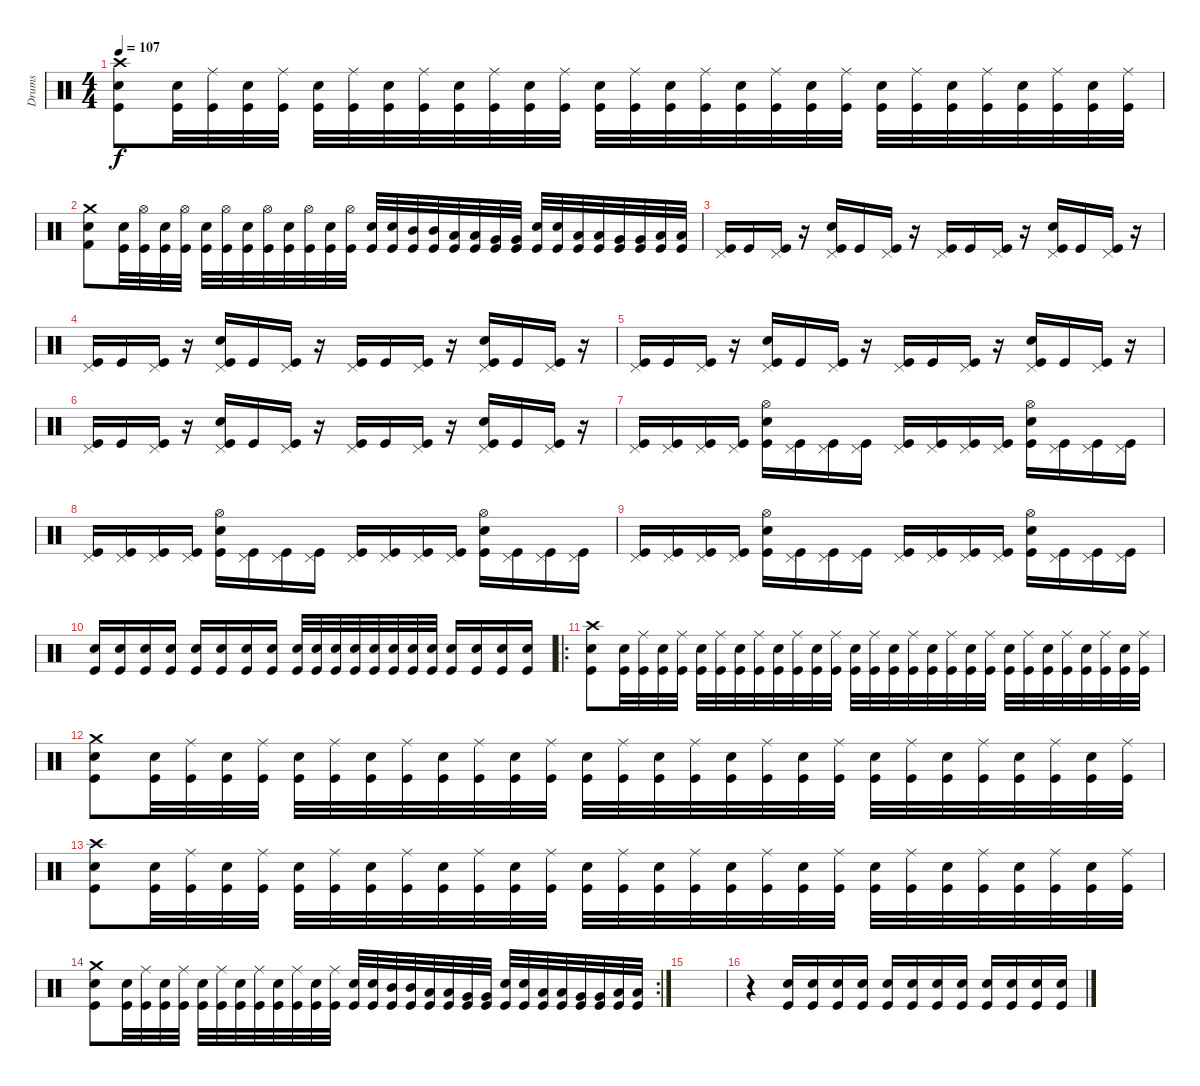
\track ("Drums" "Drums") {instrument percussion}
\staff
\articulation defaults
\ts (4 4)
\tempo 107
\clef neutral
\ks c
("Crash high (hit)" "Electric Snare (hit)" "Kick (hit)").8{dy f} ("Electric Snare (hit)" "Kick (hit)").32 ("Ride (middle)" "Kick (hit)").32 ("Electric Snare (hit)" "Kick (hit)").32 ("Ride (middle)" "Kick (hit)").32 ("Electric Snare (hit)" "Kick (hit)").32 ("Ride (middle)" "Kick (hit)").32 ("Electric Snare (hit)" "Kick (hit)").32 ("Ride (middle)" "Kick (hit)").32 ("Electric Snare (hit)" "Kick (hit)").32 ("Ride (middle)" "Kick (hit)").32 ("Electric Snare (hit)" "Kick (hit)").32 ("Ride (middle)" "Kick (hit)").32 ("Electric Snare (hit)" "Kick (hit)").32 ("Ride (middle)" "Kick (hit)").32 ("Electric Snare (hit)" "Kick (hit)").32 ("Ride (middle)" "Kick (hit)").32 ("Electric Snare (hit)" "Kick (hit)").32 ("Ride (middle)" "Kick (hit)").32 ("Electric Snare (hit)" "Kick (hit)").32 ("Ride (middle)" "Kick (hit)").32 ("Electric Snare (hit)" "Kick (hit)").32 ("Ride (middle)" "Kick (hit)").32 ("Electric Snare (hit)" "Kick (hit)").32 ("Ride (middle)" "Kick (hit)").32 ("Electric Snare (hit)" "Kick (hit)").32 ("Ride (middle)" "Kick (hit)").32 ("Electric Snare (hit)" "Kick (hit)").32 ("Ride (middle)" "Kick (hit)").32 |
("Crash medium (hit)" "Electric Snare (hit)" "Kick (hit) 2").8 ("Electric Snare (hit)" "Kick (hit)").32 ("Hi-Hat (open)" "Kick (hit)").32 ("Electric Snare (hit)" "Kick (hit)").32 ("Hi-Hat (open)" "Kick (hit)").32 ("Electric Snare (hit)" "Kick (hit)").32 ("Hi-Hat (open)" "Kick (hit)").32 ("Electric Snare (hit)" "Kick (hit)").32 ("Hi-Hat (open)" "Kick (hit)").32 ("Electric Snare (hit)" "Kick (hit)").32 ("Hi-Hat (open)" "Kick (hit)").32 ("Electric Snare (hit)" "Kick (hit)").32 ("Hi-Hat (open)" "Kick (hit)").32 ("Electric Snare (hit)" "Kick (hit)").32 ("Electric Snare (hit)" "Kick (hit)").32 ("Mid Tom (hit)" "Kick (hit)").32 ("Mid Tom (hit)" "Kick (hit)").32 ("Low Tom (hit)" "Kick (hit)").32 ("Low Tom (hit)" "Kick (hit)").32 ("Very Low Tom (hit)" "Kick (hit)").32 ("Very Low Tom (hit)" "Kick (hit)").32 ("Electric Snare (hit)" "Kick (hit)").32 ("Electric Snare (hit)" "Kick (hit)").32 ("Low Tom (hit)" "Kick (hit)").32 ("Low Tom (hit)" "Kick (hit)").32 ("Very Low Tom (hit)" "Kick (hit)").32 ("Very Low Tom (hit)" "Kick (hit)").32 ("Low Floor Tom (hit)" "Kick (hit)").32 ("Low Floor Tom (hit)" "Kick (hit)").32 |
("Pedal Hi-Hat (hit)" "Kick (hit)").16 "Kick (hit)".16 ("Pedal Hi-Hat (hit)" "Kick (hit)").16 r.16 ("Pedal Hi-Hat (hit)" "Electric Snare (hit)" "Kick (hit)").16 "Kick (hit)".16 ("Pedal Hi-Hat (hit)" "Kick (hit)").16 r.16 ("Pedal Hi-Hat (hit)" "Kick (hit)").16 "Kick (hit)".16 ("Pedal Hi-Hat (hit)" "Kick (hit)").16 r.16 ("Pedal Hi-Hat (hit)" "Electric Snare (hit)" "Kick (hit)").16 "Kick (hit)".16 ("Pedal Hi-Hat (hit)" "Kick (hit)").16 r.16 |
("Pedal Hi-Hat (hit)" "Kick (hit)").16 "Kick (hit)".16 ("Pedal Hi-Hat (hit)" "Kick (hit)").16 r.16 ("Pedal Hi-Hat (hit)" "Electric Snare (hit)" "Kick (hit)").16 "Kick (hit)".16 ("Pedal Hi-Hat (hit)" "Kick (hit)").16 r.16 ("Pedal Hi-Hat (hit)" "Kick (hit)").16 "Kick (hit)".16 ("Pedal Hi-Hat (hit)" "Kick (hit)").16 r.16 ("Pedal Hi-Hat (hit)" "Electric Snare (hit)" "Kick (hit)").16 "Kick (hit)".16 ("Pedal Hi-Hat (hit)" "Kick (hit)").16 r.16 |
("Pedal Hi-Hat (hit)" "Kick (hit)").16 "Kick (hit)".16 ("Pedal Hi-Hat (hit)" "Kick (hit)").16 r.16 ("Pedal Hi-Hat (hit)" "Electric Snare (hit)" "Kick (hit)").16 "Kick (hit)".16 ("Pedal Hi-Hat (hit)" "Kick (hit)").16 r.16 ("Pedal Hi-Hat (hit)" "Kick (hit)").16 "Kick (hit)".16 ("Pedal Hi-Hat (hit)" "Kick (hit)").16 r.16 ("Pedal Hi-Hat (hit)" "Electric Snare (hit)" "Kick (hit)").16 "Kick (hit)".16 ("Pedal Hi-Hat (hit)" "Kick (hit)").16 r.16 |
("Pedal Hi-Hat (hit)" "Kick (hit)").16 "Kick (hit)".16 ("Pedal Hi-Hat (hit)" "Kick (hit)").16 r.16 ("Pedal Hi-Hat (hit)" "Electric Snare (hit)" "Kick (hit)").16 "Kick (hit)".16 ("Pedal Hi-Hat (hit)" "Kick (hit)").16 r.16 ("Pedal Hi-Hat (hit)" "Kick (hit)").16 "Kick (hit)".16 ("Pedal Hi-Hat (hit)" "Kick (hit)").16 r.16 ("Pedal Hi-Hat (hit)" "Electric Snare (hit)" "Kick (hit)").16 "Kick (hit)".16 ("Pedal Hi-Hat (hit)" "Kick (hit)").16 r.16 |
("Pedal Hi-Hat (hit)" "Kick (hit)").16 ("Pedal Hi-Hat (hit)" "Kick (hit)").16 ("Pedal Hi-Hat (hit)" "Kick (hit)").16 ("Pedal Hi-Hat (hit)" "Kick (hit)").16 ("Hi-Hat (open)" "Electric Snare (hit)" "Kick (hit)").16 ("Pedal Hi-Hat (hit)" "Kick (hit)").16 ("Pedal Hi-Hat (hit)" "Kick (hit)").16 ("Pedal Hi-Hat (hit)" "Kick (hit)").16 ("Pedal Hi-Hat (hit)" "Kick (hit)").16 ("Pedal Hi-Hat (hit)" "Kick (hit)").16 ("Pedal Hi-Hat (hit)" "Kick (hit)").16 ("Pedal Hi-Hat (hit)" "Kick (hit)").16 ("Hi-Hat (open)" "Electric Snare (hit)" "Kick (hit)").16 ("Pedal Hi-Hat (hit)" "Kick (hit)").16 ("Pedal Hi-Hat (hit)" "Kick (hit)").16 ("Pedal Hi-Hat (hit)" "Kick (hit)").16 |
("Pedal Hi-Hat (hit)" "Kick (hit)").16 ("Pedal Hi-Hat (hit)" "Kick (hit)").16 ("Pedal Hi-Hat (hit)" "Kick (hit)").16 ("Pedal Hi-Hat (hit)" "Kick (hit)").16 ("Hi-Hat (open)" "Electric Snare (hit)" "Kick (hit)").16 ("Pedal Hi-Hat (hit)" "Kick (hit)").16 ("Pedal Hi-Hat (hit)" "Kick (hit)").16 ("Pedal Hi-Hat (hit)" "Kick (hit)").16 ("Pedal Hi-Hat (hit)" "Kick (hit)").16 ("Pedal Hi-Hat (hit)" "Kick (hit)").16 ("Pedal Hi-Hat (hit)" "Kick (hit)").16 ("Pedal Hi-Hat (hit)" "Kick (hit)").16 ("Hi-Hat (open)" "Electric Snare (hit)" "Kick (hit)").16 ("Pedal Hi-Hat (hit)" "Kick (hit)").16 ("Pedal Hi-Hat (hit)" "Kick (hit)").16 ("Pedal Hi-Hat (hit)" "Kick (hit)").16 |
("Pedal Hi-Hat (hit)" "Kick (hit)").16 ("Pedal Hi-Hat (hit)" "Kick (hit)").16 ("Pedal Hi-Hat (hit)" "Kick (hit)").16 ("Pedal Hi-Hat (hit)" "Kick (hit)").16 ("Hi-Hat (open)" "Electric Snare (hit)" "Kick (hit)").16 ("Pedal Hi-Hat (hit)" "Kick (hit)").16 ("Pedal Hi-Hat (hit)" "Kick (hit)").16 ("Pedal Hi-Hat (hit)" "Kick (hit)").16 ("Pedal Hi-Hat (hit)" "Kick (hit)").16 ("Pedal Hi-Hat (hit)" "Kick (hit)").16 ("Pedal Hi-Hat (hit)" "Kick (hit)").16 ("Pedal Hi-Hat (hit)" "Kick (hit)").16 ("Hi-Hat (open)" "Electric Snare (hit)" "Kick (hit)").16 ("Pedal Hi-Hat (hit)" "Kick (hit)").16 ("Pedal Hi-Hat (hit)" "Kick (hit)").16 ("Pedal Hi-Hat (hit)" "Kick (hit)").16 |
("Electric Snare (hit)" "Kick (hit)").16 ("Electric Snare (hit)" "Kick (hit)").16 ("Electric Snare (hit)" "Kick (hit)").16 ("Electric Snare (hit)" "Kick (hit)").16 ("Electric Snare (hit)" "Kick (hit)").16 ("Electric Snare (hit)" "Kick (hit)").16 ("Electric Snare (hit)" "Kick (hit)").16 ("Electric Snare (hit)" "Kick (hit)").16 ("Electric Snare (hit)" "Kick (hit)").32 ("Electric Snare (hit)" "Kick (hit)").32 ("Electric Snare (hit)" "Kick (hit)").32 ("Electric Snare (hit)" "Kick (hit)").32 ("Electric Snare (hit)" "Kick (hit)").32 ("Electric Snare (hit)" "Kick (hit)").32 ("Electric Snare (hit)" "Kick (hit)").32 ("Electric Snare (hit)" "Kick (hit)").32 ("Electric Snare (hit)" "Kick (hit)").16 ("Electric Snare (hit)" "Kick (hit)").16 ("Electric Snare (hit)" "Kick (hit)").16 ("Electric Snare (hit)" "Kick (hit)").16 |
\ro
("Crash high (hit)" "Electric Snare (hit)" "Kick (hit)").8 ("Electric Snare (hit)" "Kick (hit)").32 ("Ride (middle)" "Kick (hit)").32 ("Electric Snare (hit)" "Kick (hit)").32 ("Ride (middle)" "Kick (hit)").32 ("Electric Snare (hit)" "Kick (hit)").32 ("Ride (middle)" "Kick (hit)").32 ("Electric Snare (hit)" "Kick (hit)").32 ("Ride (middle)" "Kick (hit)").32 ("Electric Snare (hit)" "Kick (hit)").32 ("Ride (middle)" "Kick (hit)").32 ("Electric Snare (hit)" "Kick (hit)").32 ("Ride (middle)" "Kick (hit)").32 ("Electric Snare (hit)" "Kick (hit)").32 ("Ride (middle)" "Kick (hit)").32 ("Electric Snare (hit)" "Kick (hit)").32 ("Ride (middle)" "Kick (hit)").32 ("Electric Snare (hit)" "Kick (hit)").32 ("Ride (middle)" "Kick (hit)").32 ("Electric Snare (hit)" "Kick (hit)").32 ("Ride (middle)" "Kick (hit)").32 ("Electric Snare (hit)" "Kick (hit)").32 ("Ride (middle)" "Kick (hit)").32 ("Electric Snare (hit)" "Kick (hit)").32 ("Ride (middle)" "Kick (hit)").32 ("Electric Snare (hit)" "Kick (hit)").32 ("Ride (middle)" "Kick (hit)").32 ("Electric Snare (hit)" "Kick (hit)").32 ("Ride (middle)" "Kick (hit)").32 |
("Crash medium (hit)" "Electric Snare (hit)" "Kick (hit)").8 ("Electric Snare (hit)" "Kick (hit)").32 ("Ride (middle)" "Kick (hit)").32 ("Electric Snare (hit)" "Kick (hit)").32 ("Ride (middle)" "Kick (hit)").32 ("Electric Snare (hit)" "Kick (hit)").32 ("Ride (middle)" "Kick (hit)").32 ("Electric Snare (hit)" "Kick (hit)").32 ("Ride (middle)" "Kick (hit)").32 ("Electric Snare (hit)" "Kick (hit)").32 ("Ride (middle)" "Kick (hit)").32 ("Electric Snare (hit)" "Kick (hit)").32 ("Ride (middle)" "Kick (hit)").32 ("Electric Snare (hit)" "Kick (hit)").32 ("Ride (middle)" "Kick (hit)").32 ("Electric Snare (hit)" "Kick (hit)").32 ("Ride (middle)" "Kick (hit)").32 ("Electric Snare (hit)" "Kick (hit)").32 ("Ride (middle)" "Kick (hit)").32 ("Electric Snare (hit)" "Kick (hit)").32 ("Ride (middle)" "Kick (hit)").32 ("Electric Snare (hit)" "Kick (hit)").32 ("Ride (middle)" "Kick (hit)").32 ("Electric Snare (hit)" "Kick (hit)").32 ("Ride (middle)" "Kick (hit)").32 ("Electric Snare (hit)" "Kick (hit)").32 ("Ride (middle)" "Kick (hit)").32 ("Electric Snare (hit)" "Kick (hit)").32 ("Ride (middle)" "Kick (hit)").32 |
("Crash high (hit)" "Electric Snare (hit)" "Kick (hit)").8 ("Electric Snare (hit)" "Kick (hit)").32 ("Ride (middle)" "Kick (hit)").32 ("Electric Snare (hit)" "Kick (hit)").32 ("Ride (middle)" "Kick (hit)").32 ("Electric Snare (hit)" "Kick (hit)").32 ("Ride (middle)" "Kick (hit)").32 ("Electric Snare (hit)" "Kick (hit)").32 ("Ride (middle)" "Kick (hit)").32 ("Electric Snare (hit)" "Kick (hit)").32 ("Ride (middle)" "Kick (hit)").32 ("Electric Snare (hit)" "Kick (hit)").32 ("Ride (middle)" "Kick (hit)").32 ("Electric Snare (hit)" "Kick (hit)").32 ("Ride (middle)" "Kick (hit)").32 ("Electric Snare (hit)" "Kick (hit)").32 ("Ride (middle)" "Kick (hit)").32 ("Electric Snare (hit)" "Kick (hit)").32 ("Ride (middle)" "Kick (hit)").32 ("Electric Snare (hit)" "Kick (hit)").32 ("Ride (middle)" "Kick (hit)").32 ("Electric Snare (hit)" "Kick (hit)").32 ("Ride (middle)" "Kick (hit)").32 ("Electric Snare (hit)" "Kick (hit)").32 ("Ride (middle)" "Kick (hit)").32 ("Electric Snare (hit)" "Kick (hit)").32 ("Ride (middle)" "Kick (hit)").32 ("Electric Snare (hit)" "Kick (hit)").32 ("Ride (middle)" "Kick (hit)").32 |
\rc 2
("Crash medium (hit)" "Electric Snare (hit)" "Kick (hit)").8 ("Electric Snare (hit)" "Kick (hit)").32 ("Ride (middle)" "Kick (hit)").32 ("Electric Snare (hit)" "Kick (hit)").32 ("Ride (middle)" "Kick (hit)").32 ("Electric Snare (hit)" "Kick (hit)").32 ("Ride (middle)" "Kick (hit)").32 ("Electric Snare (hit)" "Kick (hit)").32 ("Ride (middle)" "Kick (hit)").32 ("Electric Snare (hit)" "Kick (hit)").32 ("Ride (middle)" "Kick (hit)").32 ("Electric Snare (hit)" "Kick (hit)").32 ("Ride (middle)" "Kick (hit)").32 ("Electric Snare (hit)" "Kick (hit)").32 ("Electric Snare (hit)" "Kick (hit)").32 ("Mid Tom (hit)" "Kick (hit)").32 ("Mid Tom (hit)" "Kick (hit)").32 ("Low Tom (hit)" "Kick (hit)").32 ("Low Tom (hit)" "Kick (hit)").32 ("Very Low Tom (hit)" "Kick (hit)").32 ("Very Low Tom (hit)" "Kick (hit)").32 ("Electric Snare (hit)" "Kick (hit)").32 ("Electric Snare (hit)" "Kick (hit)").32 ("Low Tom (hit)" "Kick (hit)").32 ("Low Tom (hit)" "Kick (hit)").32 ("Very Low Tom (hit)" "Kick (hit)").32 ("Very Low Tom (hit)" "Kick (hit)").32 ("Low Floor Tom (hit)" "Kick (hit)").32 ("Low Floor Tom (hit)" "Kick (hit)").32 |
|
r.4 ("Electric Snare (hit)" "Kick (hit)").16{volume 0} ("Electric Snare (hit)" "Kick (hit)").16{volume 16} ("Electric Snare (hit)" "Kick (hit)").16 ("Electric Snare (hit)" "Kick (hit)").16 ("Electric Snare (hit)" "Kick (hit)").16 ("Electric Snare (hit)" "Kick (hit)").16 ("Electric Snare (hit)" "Kick (hit)").16 ("Electric Snare (hit)" "Kick (hit)").16 ("Electric Snare (hit)" "Kick (hit)").16 ("Electric Snare (hit)" "Kick (hit)").16 ("Electric Snare (hit)" "Kick (hit)").16 ("Electric Snare (hit)" "Kick (hit)").16
